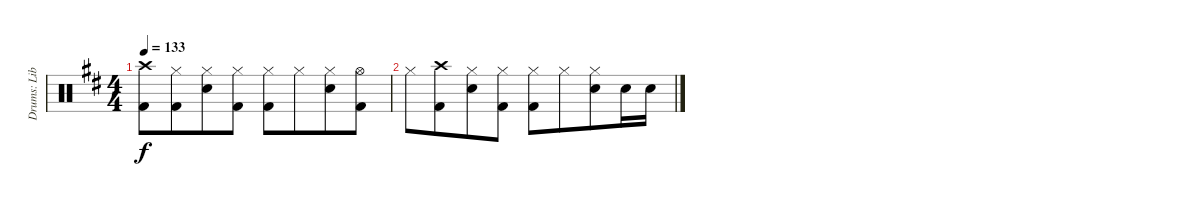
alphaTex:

\track ("Drums: Liberty" "Drums: Lib") {instrument percussion}
\staff {score}
\articulation defaults
\ts (4 4)
\tempo 133
\clef neutral
\ks d
("Crash high (hit)" "Kick (hit) 2").8{dy f} ("Hi-Hat (closed)" "Kick (hit) 2").8{beam merge} ("Hi-Hat (closed)" "Electric Snare (hit)").8 ("Hi-Hat (closed)" "Kick (hit) 2").8 ("Hi-Hat (closed)" "Kick (hit) 2").8 "Hi-Hat (closed)".8{beam merge} ("Hi-Hat (closed)" "Electric Snare (hit)").8 ("Hi-Hat (open)" "Kick (hit) 2").8 |
"Hi-Hat (closed)".8 ("Crash high (hit)" "Kick (hit) 2").8{beam merge} ("Hi-Hat (closed)" "Electric Snare (hit)").8 ("Hi-Hat (closed)" "Kick (hit) 2").8 ("Hi-Hat (closed)" "Kick (hit) 2").8 "Hi-Hat (closed)".8{beam merge} ("Hi-Hat (closed)" "Electric Snare (hit)").8 "Electric Snare (hit)".16 "Electric Snare (hit)".16
